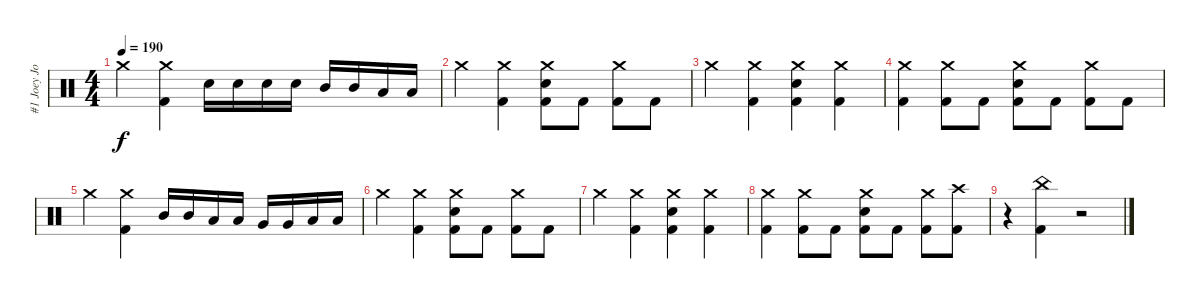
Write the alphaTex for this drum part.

\track ("#1 Joey Jordison" "#1 Joey Jo") {instrument percussion}
\staff {score}
\articulation defaults
\ts (4 4)
\tempo 190
\clef neutral
\ks c "Crash medium (hit)".4{dy f}
("Crash medium (hit)" "Kick (hit) 2").4 "Electric Snare (hit)".16 "Electric Snare (hit)".16 "Electric Snare (hit)".16 "Electric Snare (hit)".16 "Mid Tom (hit)".16 "Mid Tom (hit)".16 "Low Tom (hit)".16 "Low Tom (hit)".16 |
"Crash medium (hit)".4 ("Crash medium (hit)" "Kick (hit) 2").4 ("Crash medium (hit)" "Electric Snare (hit)" "Kick (hit) 2").8 "Kick (hit) 2".8 ("Crash medium (hit)" "Kick (hit) 2").8 "Kick (hit) 2".8 |
"Crash medium (hit)".4 ("Crash medium (hit)" "Kick (hit) 2").4 ("Crash medium (hit)" "Electric Snare (hit)" "Kick (hit) 2").4 ("Crash medium (hit)" "Kick (hit) 2").4 |
("Crash medium (hit)" "Kick (hit) 2").4 ("Crash medium (hit)" "Kick (hit) 2").8 "Kick (hit) 2".8 ("Crash medium (hit)" "Electric Snare (hit)" "Kick (hit) 2").8 "Kick (hit) 2".8 ("Crash medium (hit)" "Kick (hit) 2").8 "Kick (hit) 2".8 |
"Crash medium (hit)".4 ("Crash medium (hit)" "Kick (hit) 2").4 "Mid Tom (hit)".16 "Mid Tom (hit)".16 "Low Tom (hit)".16 "Low Tom (hit)".16 "Very Low Tom (hit)".16 "Very Low Tom (hit)".16 "Low Floor Tom (hit)".16 "Low Floor Tom (hit)".16 |
"Crash medium (hit)".4 ("Crash medium (hit)" "Kick (hit) 2").4 ("Crash medium (hit)" "Electric Snare (hit)" "Kick (hit) 2").8 "Kick (hit) 2".8 ("Crash medium (hit)" "Kick (hit) 2").8 "Kick (hit) 2".8 |
"Crash medium (hit)".4 ("Crash medium (hit)" "Kick (hit) 2").4 ("Crash medium (hit)" "Electric Snare (hit)" "Kick (hit) 2").4 ("Crash medium (hit)" "Kick (hit) 2").4 |
("Crash medium (hit)" "Kick (hit) 2").4 ("Crash medium (hit)" "Kick (hit) 2").8 "Kick (hit) 2".8 ("Crash medium (hit)" "Electric Snare (hit)" "Kick (hit) 2").8 "Kick (hit) 2".8 ("Crash medium (hit)" "Kick (hit) 2").8 ("Crash high (hit)" "Kick (hit) 2").8 |
r.4 ("China (hit)" "Kick (hit) 2").4 r.2{volume 0}
